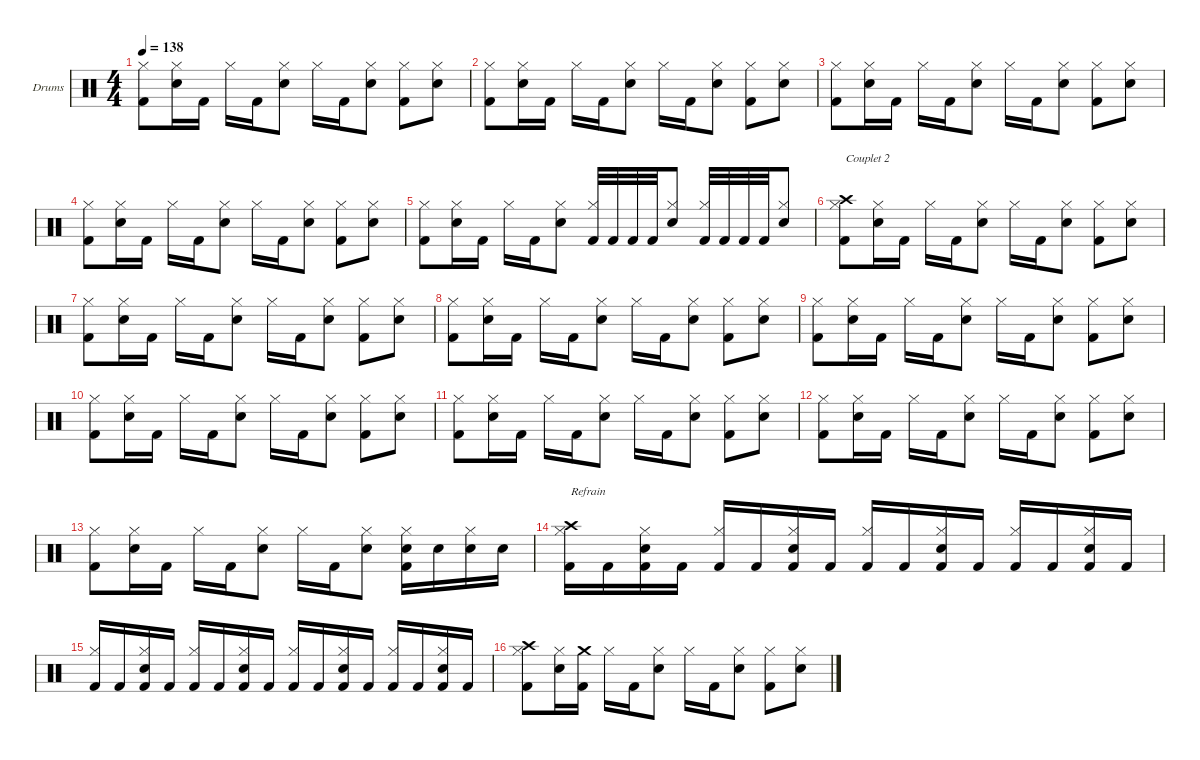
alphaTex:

\hideDynamics
\bracketExtendMode nobrackets
\firstSystemTrackNameOrientation horizontal
\otherSystemsTrackNameOrientation horizontal
\track ("Drumkit" "Drums") {instrument percussion}
\staff {score}
\articulation defaults
\ts (4 4)
\tempo 138
\clef neutral
\ks c
("Hi-Hat (closed)" "Kick (hit) 2").8{dy f beam Down} ("Snare (hit) 2" "Hi-Hat (closed)").16{beam Down} "Kick (hit) 2".16{beam Down} "Hi-Hat (closed)".16{beam Down} "Kick (hit) 2".16{beam Down} ("Snare (hit) 2" "Hi-Hat (closed)").8{beam Down} "Hi-Hat (closed)".16{beam Down} "Kick (hit) 2".16{beam Down} ("Snare (hit) 2" "Hi-Hat (closed)").8{beam Down} ("Hi-Hat (closed)" "Kick (hit) 2").8{beam Down} ("Snare (hit) 2" "Hi-Hat (closed)").8{beam Down} |
("Hi-Hat (closed)" "Kick (hit) 2").8{beam Down} ("Snare (hit) 2" "Hi-Hat (closed)").16{beam Down} "Kick (hit) 2".16{beam Down} "Hi-Hat (closed)".16{beam Down} "Kick (hit) 2".16{beam Down} ("Snare (hit) 2" "Hi-Hat (closed)").8{beam Down} "Hi-Hat (closed)".16{beam Down} "Kick (hit) 2".16{beam Down} ("Snare (hit) 2" "Hi-Hat (closed)").8{beam Down} ("Hi-Hat (closed)" "Kick (hit) 2").8{beam Down} ("Snare (hit) 2" "Hi-Hat (closed)").8{beam Down} |
("Hi-Hat (closed)" "Kick (hit) 2").8{beam Down} ("Snare (hit) 2" "Hi-Hat (closed)").16{beam Down} "Kick (hit) 2".16{beam Down} "Hi-Hat (closed)".16{beam Down} "Kick (hit) 2".16{beam Down} ("Snare (hit) 2" "Hi-Hat (closed)").8{beam Down} "Hi-Hat (closed)".16{beam Down} "Kick (hit) 2".16{beam Down} ("Snare (hit) 2" "Hi-Hat (closed)").8{beam Down} ("Hi-Hat (closed)" "Kick (hit) 2").8{beam Down} ("Snare (hit) 2" "Hi-Hat (closed)").8{beam Down} |
("Hi-Hat (closed)" "Kick (hit) 2").8{beam Down} ("Snare (hit) 2" "Hi-Hat (closed)").16{beam Down} "Kick (hit) 2".16{beam Down} "Hi-Hat (closed)".16{beam Down} "Kick (hit) 2".16{beam Down} ("Snare (hit) 2" "Hi-Hat (closed)").8{beam Down} "Hi-Hat (closed)".16{beam Down} "Kick (hit) 2".16{beam Down} ("Snare (hit) 2" "Hi-Hat (closed)").8{beam Down} ("Hi-Hat (closed)" "Kick (hit) 2").8{beam Down} ("Snare (hit) 2" "Hi-Hat (closed)").8{beam Down} |
("Hi-Hat (closed)" "Kick (hit) 2").8{beam Down} ("Snare (hit) 2" "Hi-Hat (closed)").16{beam Down} "Kick (hit) 2".16{beam Down} "Hi-Hat (closed)".16{beam Down} "Kick (hit) 2".16{beam Down} ("Snare (hit) 2" "Hi-Hat (closed)").8{beam Down} ("Hi-Hat (closed)" "Kick (hit) 2").32{beam Up} "Kick (hit) 2".32{beam Up} "Kick (hit) 2".32{beam Up} "Kick (hit) 2".32{beam Up} ("Snare (hit) 2" "Hi-Hat (closed)").8{beam Up} ("Hi-Hat (closed)" "Kick (hit) 2").32{beam Up} "Kick (hit) 2".32{beam Up} "Kick (hit) 2".32{beam Up} "Kick (hit) 2".32{beam Up} ("Snare (hit) 2" "Hi-Hat (closed)").8{beam Up} |
("Crash high (hit)" "Hi-Hat (closed)" "Kick (hit) 2").8{txt "Couplet 2" beam Down} ("Snare (hit) 2" "Hi-Hat (closed)").16{beam Down} "Kick (hit) 2".16{beam Down} "Hi-Hat (closed)".16{beam Down} "Kick (hit) 2".16{beam Down} ("Snare (hit) 2" "Hi-Hat (closed)").8{beam Down} "Hi-Hat (closed)".16{beam Down} "Kick (hit) 2".16{beam Down} ("Snare (hit) 2" "Hi-Hat (closed)").8{beam Down} ("Hi-Hat (closed)" "Kick (hit) 2").8{beam Down} ("Snare (hit) 2" "Hi-Hat (closed)").8{beam Down} |
("Hi-Hat (closed)" "Kick (hit) 2").8{beam Down} ("Snare (hit) 2" "Hi-Hat (closed)").16{beam Down} "Kick (hit) 2".16{beam Down} "Hi-Hat (closed)".16{beam Down} "Kick (hit) 2".16{beam Down} ("Snare (hit) 2" "Hi-Hat (closed)").8{beam Down} "Hi-Hat (closed)".16{beam Down} "Kick (hit) 2".16{beam Down} ("Snare (hit) 2" "Hi-Hat (closed)").8{beam Down} ("Hi-Hat (closed)" "Kick (hit) 2").8{beam Down} ("Snare (hit) 2" "Hi-Hat (closed)").8{beam Down} |
("Hi-Hat (closed)" "Kick (hit) 2").8{beam Down} ("Snare (hit) 2" "Hi-Hat (closed)").16{beam Down} "Kick (hit) 2".16{beam Down} "Hi-Hat (closed)".16{beam Down} "Kick (hit) 2".16{beam Down} ("Snare (hit) 2" "Hi-Hat (closed)").8{beam Down} "Hi-Hat (closed)".16{beam Down} "Kick (hit) 2".16{beam Down} ("Snare (hit) 2" "Hi-Hat (closed)").8{beam Down} ("Hi-Hat (closed)" "Kick (hit) 2").8{beam Down} ("Snare (hit) 2" "Hi-Hat (closed)").8{beam Down} |
("Hi-Hat (closed)" "Kick (hit) 2").8{beam Down} ("Snare (hit) 2" "Hi-Hat (closed)").16{beam Down} "Kick (hit) 2".16{beam Down} "Hi-Hat (closed)".16{beam Down} "Kick (hit) 2".16{beam Down} ("Snare (hit) 2" "Hi-Hat (closed)").8{beam Down} "Hi-Hat (closed)".16{beam Down} "Kick (hit) 2".16{beam Down} ("Snare (hit) 2" "Hi-Hat (closed)").8{beam Down} ("Hi-Hat (closed)" "Kick (hit) 2").8{beam Down} ("Snare (hit) 2" "Hi-Hat (closed)").8{beam Down} |
("Hi-Hat (closed)" "Kick (hit) 2").8{beam Down} ("Snare (hit) 2" "Hi-Hat (closed)").16{beam Down} "Kick (hit) 2".16{beam Down} "Hi-Hat (closed)".16{beam Down} "Kick (hit) 2".16{beam Down} ("Snare (hit) 2" "Hi-Hat (closed)").8{beam Down} "Hi-Hat (closed)".16{beam Down} "Kick (hit) 2".16{beam Down} ("Snare (hit) 2" "Hi-Hat (closed)").8{beam Down} ("Hi-Hat (closed)" "Kick (hit) 2").8{beam Down} ("Snare (hit) 2" "Hi-Hat (closed)").8{beam Down} |
("Hi-Hat (closed)" "Kick (hit) 2").8{beam Down} ("Snare (hit) 2" "Hi-Hat (closed)").16{beam Down} "Kick (hit) 2".16{beam Down} "Hi-Hat (closed)".16{beam Down} "Kick (hit) 2".16{beam Down} ("Snare (hit) 2" "Hi-Hat (closed)").8{beam Down} "Hi-Hat (closed)".16{beam Down} "Kick (hit) 2".16{beam Down} ("Snare (hit) 2" "Hi-Hat (closed)").8{beam Down} ("Hi-Hat (closed)" "Kick (hit) 2").8{beam Down} ("Snare (hit) 2" "Hi-Hat (closed)").8{beam Down} |
("Hi-Hat (closed)" "Kick (hit) 2").8{beam Down} ("Snare (hit) 2" "Hi-Hat (closed)").16{beam Down} "Kick (hit) 2".16{beam Down} "Hi-Hat (closed)".16{beam Down} "Kick (hit) 2".16{beam Down} ("Snare (hit) 2" "Hi-Hat (closed)").8{beam Down} "Hi-Hat (closed)".16{beam Down} "Kick (hit) 2".16{beam Down} ("Snare (hit) 2" "Hi-Hat (closed)").8{beam Down} ("Hi-Hat (closed)" "Kick (hit) 2").8{beam Down} ("Snare (hit) 2" "Hi-Hat (closed)").8{beam Down} |
("Hi-Hat (closed)" "Kick (hit) 2").8{beam Down} ("Snare (hit) 2" "Hi-Hat (closed)").16{beam Down} "Kick (hit) 2".16{beam Down} "Hi-Hat (closed)".16{beam Down} "Kick (hit) 2".16{beam Down} ("Snare (hit) 2" "Hi-Hat (closed)").8{beam Down} "Hi-Hat (closed)".16{beam Down} "Kick (hit) 2".16{beam Down} ("Snare (hit) 2" "Hi-Hat (closed)").8{beam Down} ("Snare (hit) 2" "Hi-Hat (closed)" "Kick (hit) 2").16{beam Down} "Snare (hit) 2".16{beam Down} ("Snare (hit) 2" "Hi-Hat (closed)").16{beam Down} "Snare (hit) 2".16{beam Down} |
("Crash high (hit)" "Hi-Hat (closed)" "Kick (hit) 2").16{txt "Refrain" beam Down} "Kick (hit) 2".16{beam Down} ("Snare (hit) 2" "Hi-Hat (closed)" "Kick (hit) 2").16{beam Down} "Kick (hit) 2".16{beam Down} ("Hi-Hat (closed)" "Kick (hit) 2").16{beam Up} "Kick (hit) 2".16{beam Up} ("Snare (hit) 2" "Hi-Hat (closed)" "Kick (hit) 2").16{beam Up} "Kick (hit) 2".16{beam Up} ("Hi-Hat (closed)" "Kick (hit) 2").16{beam Up} "Kick (hit) 2".16{beam Up} ("Snare (hit) 2" "Hi-Hat (closed)" "Kick (hit) 2").16{beam Up} "Kick (hit) 2".16{beam Up} ("Hi-Hat (closed)" "Kick (hit) 2").16{beam Up} "Kick (hit) 2".16{beam Up} ("Snare (hit) 2" "Hi-Hat (closed)" "Kick (hit) 2").16{beam Up} "Kick (hit) 2".16{beam Up} |
("Hi-Hat (closed)" "Kick (hit) 2").16{beam Up} "Kick (hit) 2".16{beam Up} ("Snare (hit) 2" "Hi-Hat (closed)" "Kick (hit) 2").16{beam Up} "Kick (hit) 2".16{beam Up} ("Hi-Hat (closed)" "Kick (hit) 2").16{beam Up} "Kick (hit) 2".16{beam Up} ("Snare (hit) 2" "Hi-Hat (closed)" "Kick (hit) 2").16{beam Up} "Kick (hit) 2".16{beam Up} ("Hi-Hat (closed)" "Kick (hit) 2").16{beam Up} "Kick (hit) 2".16{beam Up} ("Snare (hit) 2" "Hi-Hat (closed)" "Kick (hit) 2").16{beam Up} "Kick (hit) 2".16{beam Up} ("Hi-Hat (closed)" "Kick (hit) 2").16{beam Up} "Kick (hit) 2".16{beam Up} ("Snare (hit) 2" "Hi-Hat (closed)" "Kick (hit) 2").16{beam Up} "Kick (hit) 2".16{beam Up} |
("Crash high (hit)" "Hi-Hat (closed)" "Kick (hit) 2").8{beam Down} ("Snare (hit) 2" "Hi-Hat (closed)").16{beam Down} ("Crash medium (hit)" "Kick (hit) 2").16{beam Down} "Hi-Hat (closed)".16{beam Down} "Kick (hit) 2".16{beam Down} ("Snare (hit) 2" "Hi-Hat (closed)").8{beam Down} "Hi-Hat (closed)".16{beam Down} "Kick (hit) 2".16{beam Down} ("Snare (hit) 2" "Hi-Hat (closed)").8{beam Down} ("Hi-Hat (closed)" "Kick (hit) 2").8{beam Down} ("Snare (hit) 2" "Hi-Hat (closed)").8{beam Down}
